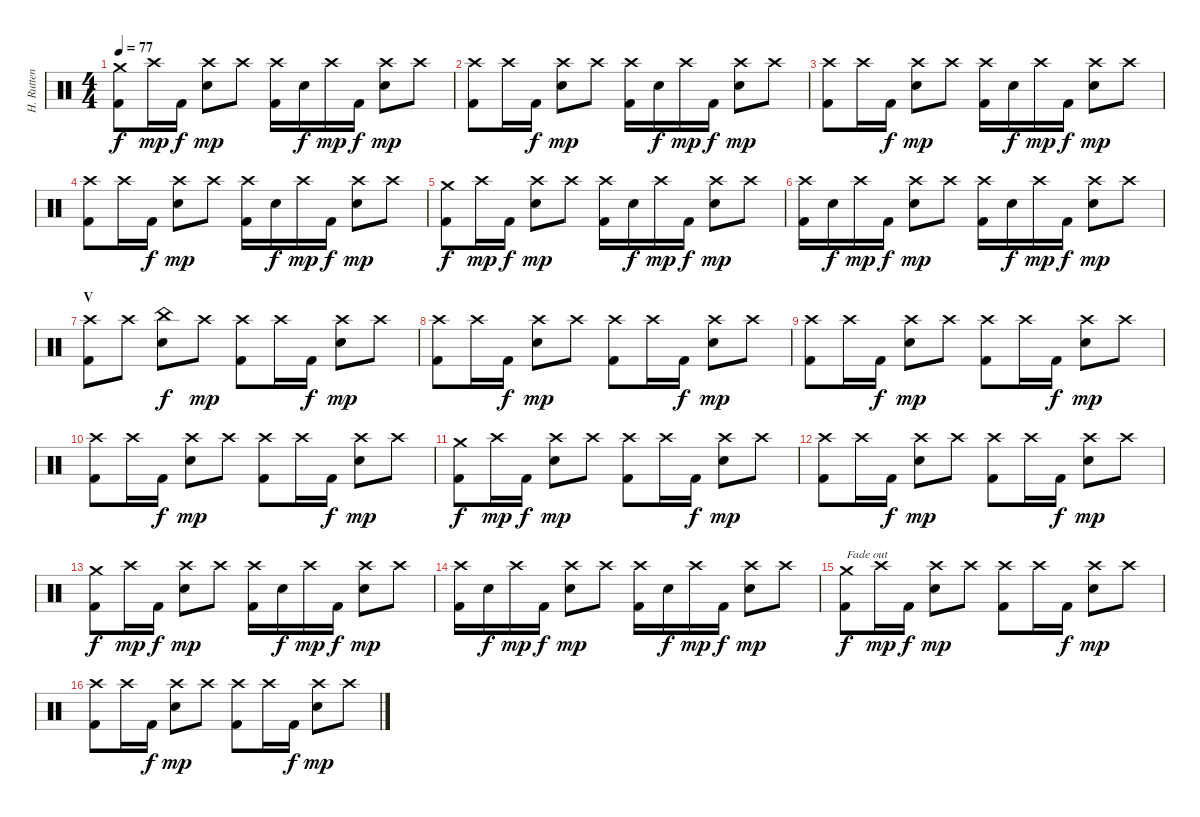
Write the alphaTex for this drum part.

\track ("H. Rutten" "H. Rutten") {instrument percussion}
\staff {score}
\articulation defaults
\ts (4 4)
\tempo 77
\clef neutral
\ks c
("Kick (hit) 2" "Crash medium (hit)").8{dy f} "Crash high (hit)".16{dy mp} "Kick (hit) 2".16{dy f} ("Electric Snare (hit)" "Crash high (hit)").8{dy mp} "Crash high (hit)".8 ("Kick (hit) 2" "Crash high (hit)").16 "Electric Snare (hit)".16{dy f} "Crash high (hit)".16{dy mp} "Kick (hit) 2".16{dy f} ("Electric Snare (hit)" "Crash high (hit)").8{dy mp} "Crash high (hit)".8 |
("Kick (hit) 2" "Crash high (hit)").8 "Crash high (hit)".16 "Kick (hit) 2".16{dy f} ("Electric Snare (hit)" "Crash high (hit)").8{dy mp} "Crash high (hit)".8 ("Kick (hit) 2" "Crash high (hit)").16 "Electric Snare (hit)".16{dy f} "Crash high (hit)".16{dy mp} "Kick (hit) 2".16{dy f} ("Electric Snare (hit)" "Crash high (hit)").8{dy mp} "Crash high (hit)".8 |
("Kick (hit) 2" "Crash high (hit)").8 "Crash high (hit)".16 "Kick (hit) 2".16{dy f} ("Electric Snare (hit)" "Crash high (hit)").8{dy mp} "Crash high (hit)".8 ("Kick (hit) 2" "Crash high (hit)").16 "Electric Snare (hit)".16{dy f} "Crash high (hit)".16{dy mp} "Kick (hit) 2".16{dy f} ("Electric Snare (hit)" "Crash high (hit)").8{dy mp} "Crash high (hit)".8 |
("Kick (hit) 2" "Crash high (hit)").8 "Crash high (hit)".16 "Kick (hit) 2".16{dy f} ("Electric Snare (hit)" "Crash high (hit)").8{dy mp} "Crash high (hit)".8 ("Kick (hit) 2" "Crash high (hit)").16 "Electric Snare (hit)".16{dy f} "Crash high (hit)".16{dy mp} "Kick (hit) 2".16{dy f} ("Electric Snare (hit)" "Crash high (hit)").8{dy mp} "Crash high (hit)".8 |
("Kick (hit) 2" "Crash medium (hit)").8{dy f} "Crash high (hit)".16{dy mp} "Kick (hit) 2".16{dy f} ("Electric Snare (hit)" "Crash high (hit)").8{dy mp} "Crash high (hit)".8 ("Kick (hit) 2" "Crash high (hit)").16 "Electric Snare (hit)".16{dy f} "Crash high (hit)".16{dy mp} "Kick (hit) 2".16{dy f} ("Electric Snare (hit)" "Crash high (hit)").8{dy mp} "Crash high (hit)".8 |
("Kick (hit) 2" "Crash high (hit)").16 "Electric Snare (hit)".16{dy f} "Crash high (hit)".16{dy mp} "Kick (hit) 2".16{dy f} ("Electric Snare (hit)" "Crash high (hit)").8{dy mp} "Crash high (hit)".8 ("Kick (hit) 2" "Crash high (hit)").16 "Electric Snare (hit)".16{dy f} "Crash high (hit)".16{dy mp} "Kick (hit) 2".16{dy f} ("Electric Snare (hit)" "Crash high (hit)").8{dy mp} "Crash high (hit)".8 |
\section ("" "V")
("Kick (hit) 2" "Crash high (hit)").8 "Crash high (hit)".8 ("Electric Snare (hit)" "China (hit)").8{dy f} "Crash high (hit)".8{dy mp} ("Kick (hit) 2" "Crash high (hit)").8 "Crash high (hit)".16 "Kick (hit) 2".16{dy f} ("Electric Snare (hit)" "Crash high (hit)").8{dy mp} "Crash high (hit)".8 |
("Kick (hit) 2" "Crash high (hit)").8 "Crash high (hit)".16 "Kick (hit) 2".16{dy f} ("Electric Snare (hit)" "Crash high (hit)").8{dy mp} "Crash high (hit)".8 ("Kick (hit) 2" "Crash high (hit)").8 "Crash high (hit)".16 "Kick (hit) 2".16{dy f} ("Electric Snare (hit)" "Crash high (hit)").8{dy mp} "Crash high (hit)".8 |
("Kick (hit) 2" "Crash high (hit)").8 "Crash high (hit)".16 "Kick (hit) 2".16{dy f} ("Electric Snare (hit)" "Crash high (hit)").8{dy mp} "Crash high (hit)".8 ("Kick (hit) 2" "Crash high (hit)").8 "Crash high (hit)".16 "Kick (hit) 2".16{dy f} ("Electric Snare (hit)" "Crash high (hit)").8{dy mp} "Crash high (hit)".8 |
("Kick (hit) 2" "Crash high (hit)").8 "Crash high (hit)".16 "Kick (hit) 2".16{dy f} ("Electric Snare (hit)" "Crash high (hit)").8{dy mp} "Crash high (hit)".8 ("Kick (hit) 2" "Crash high (hit)").8 "Crash high (hit)".16 "Kick (hit) 2".16{dy f} ("Electric Snare (hit)" "Crash high (hit)").8{dy mp} "Crash high (hit)".8 |
("Kick (hit) 2" "Crash medium (hit)").8{dy f} "Crash high (hit)".16{dy mp} "Kick (hit) 2".16{dy f} ("Electric Snare (hit)" "Crash high (hit)").8{dy mp} "Crash high (hit)".8 ("Kick (hit) 2" "Crash high (hit)").8 "Crash high (hit)".16 "Kick (hit) 2".16{dy f} ("Electric Snare (hit)" "Crash high (hit)").8{dy mp} "Crash high (hit)".8 |
("Kick (hit) 2" "Crash high (hit)").8 "Crash high (hit)".16 "Kick (hit) 2".16{dy f} ("Electric Snare (hit)" "Crash high (hit)").8{dy mp} "Crash high (hit)".8 ("Kick (hit) 2" "Crash high (hit)").8 "Crash high (hit)".16 "Kick (hit) 2".16{dy f} ("Electric Snare (hit)" "Crash high (hit)").8{dy mp} "Crash high (hit)".8 |
("Kick (hit) 2" "Crash medium (hit)").8{dy f} "Crash high (hit)".16{dy mp} "Kick (hit) 2".16{dy f} ("Electric Snare (hit)" "Crash high (hit)").8{dy mp} "Crash high (hit)".8 ("Kick (hit) 2" "Crash high (hit)").16 "Electric Snare (hit)".16{dy f} "Crash high (hit)".16{dy mp} "Kick (hit) 2".16{dy f} ("Electric Snare (hit)" "Crash high (hit)").8{dy mp} "Crash high (hit)".8 |
("Kick (hit) 2" "Crash high (hit)").16 "Electric Snare (hit)".16{dy f} "Crash high (hit)".16{dy mp} "Kick (hit) 2".16{dy f} ("Electric Snare (hit)" "Crash high (hit)").8{dy mp} "Crash high (hit)".8 ("Kick (hit) 2" "Crash high (hit)").16 "Electric Snare (hit)".16{dy f} "Crash high (hit)".16{dy mp} "Kick (hit) 2".16{dy f} ("Electric Snare (hit)" "Crash high (hit)").8{dy mp} "Crash high (hit)".8 |
("Kick (hit) 2" "Crash medium (hit)").8{txt "Fade out" dy f volume 11} "Crash high (hit)".16{dy mp} "Kick (hit) 2".16{dy f} ("Electric Snare (hit)" "Crash high (hit)").8{dy mp} "Crash high (hit)".8 ("Kick (hit) 2" "Crash high (hit)").8 "Crash high (hit)".16 "Kick (hit) 2".16{dy f} ("Electric Snare (hit)" "Crash high (hit)").8{dy mp} "Crash high (hit)".8 |
("Kick (hit) 2" "Crash high (hit)").8{volume 11} "Crash high (hit)".16 "Kick (hit) 2".16{dy f} ("Electric Snare (hit)" "Crash high (hit)").8{dy mp} "Crash high (hit)".8 ("Kick (hit) 2" "Crash high (hit)").8 "Crash high (hit)".16 "Kick (hit) 2".16{dy f} ("Electric Snare (hit)" "Crash high (hit)").8{dy mp} "Crash high (hit)".8
